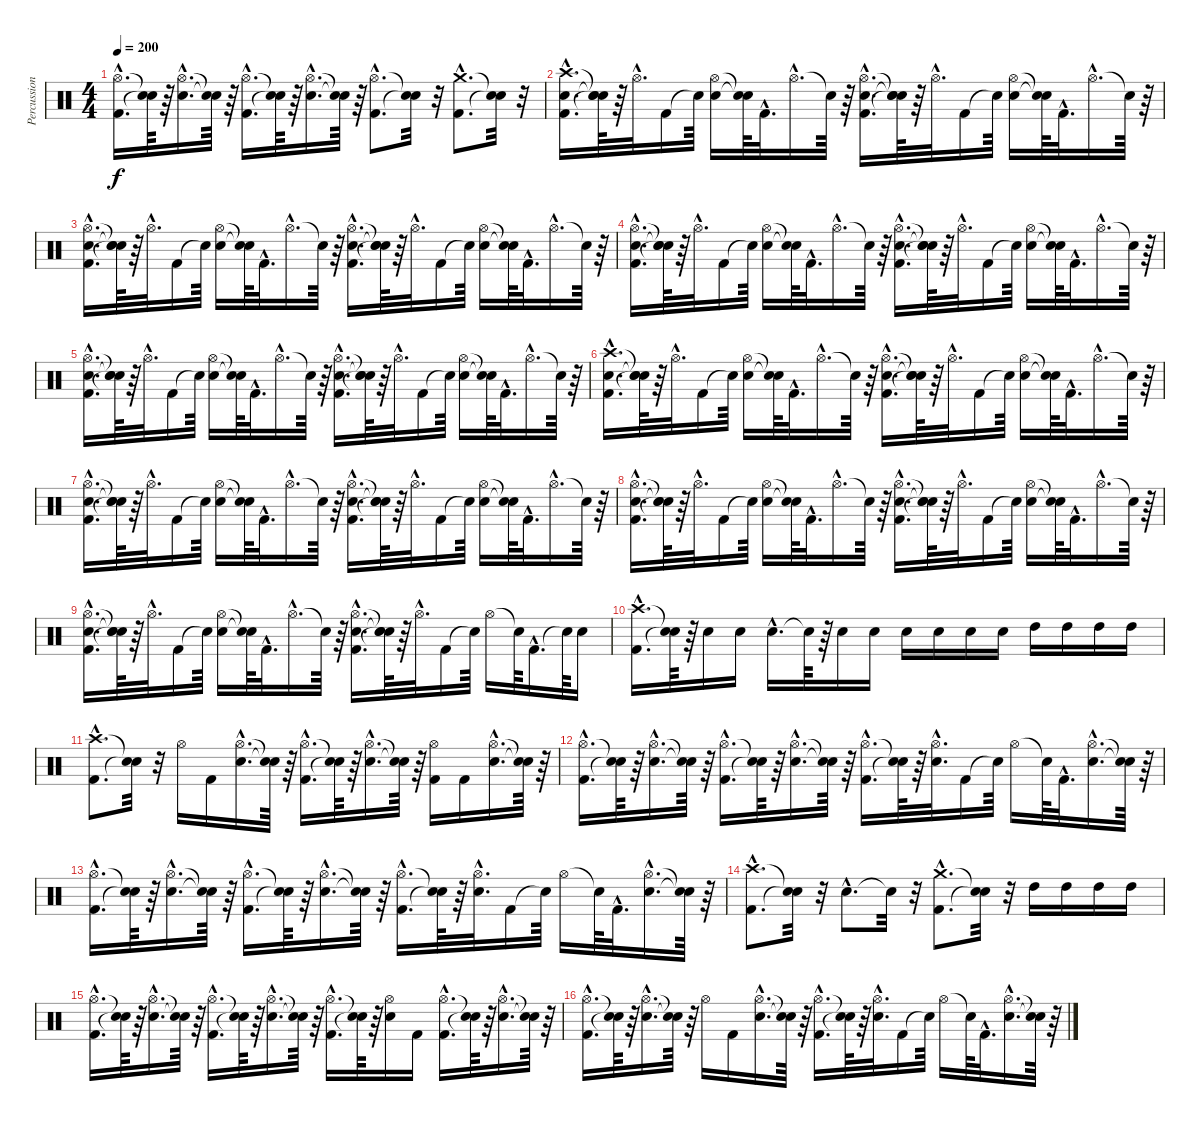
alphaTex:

\track ("Percussion" "Percussion") {instrument percussion}
\staff {score}
\articulation defaults
\ts (4 4)
\tempo 200
\clef neutral
\ks c
("Hi-Hat (open)"{hac} "Kick (hit) 2"{hac}).16{d dy f} ("Snare (hit)"{t} "Snare (hit)"{t}).64 r.64 ("Electric Snare (hit)"{hac} "Hi-Hat (open)"{hac}).16{d} ("Snare (hit)"{t} "Snare (hit)"{t}).64 r.64 ("Hi-Hat (open)"{hac} "Kick (hit) 2"{hac}).16{d} ("Snare (hit)"{t} "Snare (hit)"{t}).64 r.64 ("Electric Snare (hit)"{hac} "Hi-Hat (open)"{hac}).16{d} ("Snare (hit)"{t} "Snare (hit)"{t}).64 r.64 ("Kick (hit) 2"{hac} "Hi-Hat (open)"{hac}).8{d} ("Snare (hit)"{t} "Snare (hit)"{t}).32 r.32 ("Kick (hit) 2"{hac} "Crash medium (hit)"{hac}).8{d} ("Snare (hit)"{t} "Snare (hit)"{t}).32 r.32 |
("Electric Snare (hit)"{hac} "Crash high (hit)"{hac} "Kick (hit) 2"{hac}).16{d} ("Snare (hit)"{t} "Snare (hit)"{t} "Snare (hit)"{t}).64 r.64 "Hi-Hat (open)"{hac}.32{d} "Kick (hit) 2".16 "Snare (hit)"{t}.64 ("Electric Snare (hit)" "Hi-Hat (open)").16 ("Snare (hit)"{t} "Snare (hit)"{t}).64 "Kick (hit) 2"{hac}.32{d} "Hi-Hat (open)"{hac}.16{d} "Snare (hit)"{t}.64 r.64 ("Electric Snare (hit)"{hac} "Hi-Hat (open)"{hac} "Kick (hit) 2"{hac}).16{d} ("Snare (hit)"{t} "Snare (hit)"{t} "Snare (hit)"{t}).64 r.64 "Hi-Hat (open)"{hac}.32{d} "Kick (hit) 2".16 "Snare (hit)"{t}.64 ("Electric Snare (hit)" "Hi-Hat (open)").16 ("Snare (hit)"{t} "Snare (hit)"{t}).64 "Kick (hit) 2"{hac}.32{d} "Hi-Hat (open)"{hac}.16{d} "Snare (hit)"{t}.64 r.64 |
("Electric Snare (hit)"{hac} "Hi-Hat (open)"{hac} "Kick (hit) 2"{hac}).16{d} ("Snare (hit)"{t} "Snare (hit)"{t} "Snare (hit)"{t}).64 r.64 "Hi-Hat (open)"{hac}.32{d} "Kick (hit) 2".16 "Snare (hit)"{t}.64 ("Electric Snare (hit)" "Hi-Hat (open)").16 ("Snare (hit)"{t} "Snare (hit)"{t}).64 "Kick (hit) 2"{hac}.32{d} "Hi-Hat (open)"{hac}.16{d} "Snare (hit)"{t}.64 r.64 ("Electric Snare (hit)"{hac} "Hi-Hat (open)"{hac} "Kick (hit) 2"{hac}).16{d} ("Snare (hit)"{t} "Snare (hit)"{t} "Snare (hit)"{t}).64 r.64 "Hi-Hat (open)"{hac}.32{d} "Kick (hit) 2".16 "Snare (hit)"{t}.64 ("Electric Snare (hit)" "Hi-Hat (open)").16 ("Snare (hit)"{t} "Snare (hit)"{t}).64 "Kick (hit) 2"{hac}.32{d} "Hi-Hat (open)"{hac}.16{d} "Snare (hit)"{t}.64 r.64 |
("Electric Snare (hit)"{hac} "Hi-Hat (open)"{hac} "Kick (hit) 2"{hac}).16{d} ("Snare (hit)"{t} "Snare (hit)"{t} "Snare (hit)"{t}).64 r.64 "Hi-Hat (open)"{hac}.32{d} "Kick (hit) 2".16 "Snare (hit)"{t}.64 ("Electric Snare (hit)" "Hi-Hat (open)").16 ("Snare (hit)"{t} "Snare (hit)"{t}).64 "Kick (hit) 2"{hac}.32{d} "Hi-Hat (open)"{hac}.16{d} "Snare (hit)"{t}.64 r.64 ("Electric Snare (hit)"{hac} "Hi-Hat (open)"{hac} "Kick (hit) 2"{hac}).16{d} ("Snare (hit)"{t} "Snare (hit)"{t} "Snare (hit)"{t}).64 r.64 "Hi-Hat (open)"{hac}.32{d} "Kick (hit) 2".16 "Snare (hit)"{t}.64 ("Electric Snare (hit)" "Hi-Hat (open)").16 ("Snare (hit)"{t} "Snare (hit)"{t}).64 "Kick (hit) 2"{hac}.32{d} "Hi-Hat (open)"{hac}.16{d} "Snare (hit)"{t}.64 r.64 |
("Electric Snare (hit)"{hac} "Hi-Hat (open)"{hac} "Kick (hit) 2"{hac}).16{d} ("Snare (hit)"{t} "Snare (hit)"{t} "Snare (hit)"{t}).64 r.64 "Hi-Hat (open)"{hac}.32{d} "Kick (hit) 2".16 "Snare (hit)"{t}.64 ("Electric Snare (hit)" "Hi-Hat (open)").16 ("Snare (hit)"{t} "Snare (hit)"{t}).64 "Kick (hit) 2"{hac}.32{d} "Hi-Hat (open)"{hac}.16{d} "Snare (hit)"{t}.64 r.64 ("Electric Snare (hit)"{hac} "Hi-Hat (open)"{hac} "Kick (hit) 2"{hac}).16{d} ("Snare (hit)"{t} "Snare (hit)"{t} "Snare (hit)"{t}).64 r.64 "Hi-Hat (open)"{hac}.32{d} "Kick (hit) 2".16 "Snare (hit)"{t}.64 ("Electric Snare (hit)" "Hi-Hat (open)").16 ("Snare (hit)"{t} "Snare (hit)"{t}).64 "Kick (hit) 2"{hac}.32{d} "Hi-Hat (open)"{hac}.16{d} "Snare (hit)"{t}.64 r.64 |
("Electric Snare (hit)"{hac} "Crash high (hit)"{hac} "Kick (hit) 2"{hac}).16{d} ("Snare (hit)"{t} "Snare (hit)"{t} "Snare (hit)"{t}).64 r.64 "Hi-Hat (open)"{hac}.32{d} "Kick (hit) 2".16 "Snare (hit)"{t}.64 ("Electric Snare (hit)" "Hi-Hat (open)").16 ("Snare (hit)"{t} "Snare (hit)"{t}).64 "Kick (hit) 2"{hac}.32{d} "Hi-Hat (open)"{hac}.16{d} "Snare (hit)"{t}.64 r.64 ("Electric Snare (hit)"{hac} "Hi-Hat (open)"{hac} "Kick (hit) 2"{hac}).16{d} ("Snare (hit)"{t} "Snare (hit)"{t} "Snare (hit)"{t}).64 r.64 "Hi-Hat (open)"{hac}.32{d} "Kick (hit) 2".16 "Snare (hit)"{t}.64 ("Electric Snare (hit)" "Hi-Hat (open)").16 ("Snare (hit)"{t} "Snare (hit)"{t}).64 "Kick (hit) 2"{hac}.32{d} "Hi-Hat (open)"{hac}.16{d} "Snare (hit)"{t}.64 r.64 |
("Electric Snare (hit)"{hac} "Hi-Hat (open)"{hac} "Kick (hit) 2"{hac}).16{d} ("Snare (hit)"{t} "Snare (hit)"{t} "Snare (hit)"{t}).64 r.64 "Hi-Hat (open)"{hac}.32{d} "Kick (hit) 2".16 "Snare (hit)"{t}.64 ("Electric Snare (hit)" "Hi-Hat (open)").16 ("Snare (hit)"{t} "Snare (hit)"{t}).64 "Kick (hit) 2"{hac}.32{d} "Hi-Hat (open)"{hac}.16{d} "Snare (hit)"{t}.64 r.64 ("Electric Snare (hit)"{hac} "Hi-Hat (open)"{hac} "Kick (hit) 2"{hac}).16{d} ("Snare (hit)"{t} "Snare (hit)"{t} "Snare (hit)"{t}).64 r.64 "Hi-Hat (open)"{hac}.32{d} "Kick (hit) 2".16 "Snare (hit)"{t}.64 ("Electric Snare (hit)" "Hi-Hat (open)").16 ("Snare (hit)"{t} "Snare (hit)"{t}).64 "Kick (hit) 2"{hac}.32{d} "Hi-Hat (open)"{hac}.16{d} "Snare (hit)"{t}.64 r.64 |
("Electric Snare (hit)"{hac} "Hi-Hat (open)"{hac} "Kick (hit) 2"{hac}).16{d} ("Snare (hit)"{t} "Snare (hit)"{t} "Snare (hit)"{t}).64 r.64 "Hi-Hat (open)"{hac}.32{d} "Kick (hit) 2".16 "Snare (hit)"{t}.64 ("Electric Snare (hit)" "Hi-Hat (open)").16 ("Snare (hit)"{t} "Snare (hit)"{t}).64 "Kick (hit) 2"{hac}.32{d} "Hi-Hat (open)"{hac}.16{d} "Snare (hit)"{t}.64 r.64 ("Electric Snare (hit)"{hac} "Hi-Hat (open)"{hac} "Kick (hit) 2"{hac}).16{d} ("Snare (hit)"{t} "Snare (hit)"{t} "Snare (hit)"{t}).64 r.64 "Hi-Hat (open)"{hac}.32{d} "Kick (hit) 2".16 "Snare (hit)"{t}.64 ("Electric Snare (hit)" "Hi-Hat (open)").16 ("Snare (hit)"{t} "Snare (hit)"{t}).64 "Kick (hit) 2"{hac}.32{d} "Hi-Hat (open)"{hac}.16{d} "Snare (hit)"{t}.64 r.64 |
("Electric Snare (hit)"{hac} "Hi-Hat (open)"{hac} "Kick (hit) 2"{hac}).16{d} ("Snare (hit)"{t} "Snare (hit)"{t} "Snare (hit)"{t}).64 r.64 "Hi-Hat (open)"{hac}.32{d} "Kick (hit) 2".16 "Snare (hit)"{t}.64 ("Electric Snare (hit)" "Hi-Hat (open)").16 ("Snare (hit)"{t} "Snare (hit)"{t}).64 "Kick (hit) 2"{hac}.32{d} "Hi-Hat (open)"{hac}.16{d} "Snare (hit)"{t}.64 r.64 ("Electric Snare (hit)"{hac} "Hi-Hat (open)"{hac} "Kick (hit) 2"{hac}).16{d} ("Snare (hit)"{t} "Snare (hit)"{t} "Snare (hit)"{t}).64 r.64 "Hi-Hat (open)"{hac}.32{d} "Kick (hit) 2".16 "Snare (hit)"{t}.64 "Hi-Hat (open)".16 "Snare (hit)"{t}.64 "Kick (hit) 2"{hac}.16{d} "Snare (hit)"{t}.64 "Electric Snare (hit)".16 |
("Kick (hit) 2"{hac} "Crash high (hit)"{hac}).16{d} ("Snare (hit)"{t} "Snare (hit)"{t}).64 r.64 "Electric Snare (hit)".16 "Electric Snare (hit)".16 "Electric Snare (hit)"{hac}.16{d} "Snare (hit)"{t}.64 r.64 "Electric Snare (hit)".16 "Electric Snare (hit)".16 "Electric Snare (hit)".16 "Electric Snare (hit)".16 "Electric Snare (hit)".16 "Electric Snare (hit)".16 "High Tom (hit)".16 "High Tom (hit)".16 "High Tom (hit)".16 "High Tom (hit)".16 |
("Kick (hit) 2"{hac} "Crash high (hit)"{hac}).8{d} ("Snare (hit)"{t} "Snare (hit)"{t}).32 r.32 "Hi-Hat (open)".16 "Kick (hit) 2".16 ("Electric Snare (hit)"{hac} "Hi-Hat (open)"{hac}).16{d} ("Snare (hit)"{t} "Snare (hit)"{t}).64 r.64 ("Hi-Hat (open)"{hac} "Kick (hit) 2"{hac}).16{d} ("Snare (hit)"{t} "Snare (hit)"{t}).64 r.64 ("Electric Snare (hit)"{hac} "Hi-Hat (open)"{hac}).16{d} ("Snare (hit)"{t} "Snare (hit)"{t}).64 r.64 ("Hi-Hat (open)" "Kick (hit) 2").16 "Kick (hit) 2".16 ("Electric Snare (hit)"{hac} "Hi-Hat (open)"{hac}).16{d} ("Snare (hit)"{t} "Snare (hit)"{t}).64 r.64 |
("Hi-Hat (open)"{hac} "Kick (hit) 2"{hac}).16{d} ("Snare (hit)"{t} "Snare (hit)"{t}).64 r.64 ("Electric Snare (hit)"{hac} "Hi-Hat (open)"{hac}).16{d} ("Snare (hit)"{t} "Snare (hit)"{t}).64 r.64 ("Hi-Hat (open)"{hac} "Kick (hit) 2"{hac}).16{d} ("Snare (hit)"{t} "Snare (hit)"{t}).64 r.64 ("Electric Snare (hit)"{hac} "Hi-Hat (open)"{hac}).16{d} ("Snare (hit)"{t} "Snare (hit)"{t}).64 r.64 ("Hi-Hat (open)"{hac} "Kick (hit) 2"{hac}).16{d} ("Snare (hit)"{t} "Snare (hit)"{t}).64 r.64 ("Electric Snare (hit)"{hac} "Hi-Hat (open)"{hac}).32{d} "Kick (hit) 2".16 "Snare (hit)"{t}.64 "Hi-Hat (open)".16 "Snare (hit)"{t}.64 "Kick (hit) 2"{hac}.32{d} ("Electric Snare (hit)"{hac} "Hi-Hat (open)"{hac}).16{d} ("Snare (hit)"{t} "Snare (hit)"{t}).64 r.64 |
("Hi-Hat (open)"{hac} "Kick (hit) 2"{hac}).16{d} ("Snare (hit)"{t} "Snare (hit)"{t}).64 r.64 ("Electric Snare (hit)"{hac} "Hi-Hat (open)"{hac}).16{d} ("Snare (hit)"{t} "Snare (hit)"{t}).64 r.64 ("Hi-Hat (open)"{hac} "Kick (hit) 2"{hac}).16{d} ("Snare (hit)"{t} "Snare (hit)"{t}).64 r.64 ("Electric Snare (hit)"{hac} "Hi-Hat (open)"{hac}).16{d} ("Snare (hit)"{t} "Snare (hit)"{t}).64 r.64 ("Hi-Hat (open)"{hac} "Kick (hit) 2"{hac}).16{d} ("Snare (hit)"{t} "Snare (hit)"{t}).64 r.64 ("Electric Snare (hit)"{hac} "Hi-Hat (open)"{hac}).32{d} "Kick (hit) 2".16 "Snare (hit)"{t}.64 "Hi-Hat (open)".16 "Snare (hit)"{t}.64 "Kick (hit) 2"{hac}.32{d} ("Electric Snare (hit)"{hac} "Hi-Hat (open)"{hac}).16{d} ("Snare (hit)"{t} "Snare (hit)"{t}).64 r.64 |
("Kick (hit) 2"{hac} "Crash high (hit)"{hac}).8{d} ("Snare (hit)"{t} "Snare (hit)"{t}).32 r.32 "Electric Snare (hit)"{hac}.8{d} "Snare (hit)"{t}.32 r.32 ("Kick (hit) 2"{hac} "Crash medium (hit)"{hac}).8{d} ("Snare (hit)"{t} "Snare (hit)"{t}).32 r.32 "High Tom (hit)".16 "High Tom (hit)".16 "High Tom (hit)".16 "High Tom (hit)".16 |
("Hi-Hat (open)"{hac} "Kick (hit) 2"{hac}).16{d} ("Snare (hit)"{t} "Snare (hit)"{t}).64 r.64 ("Electric Snare (hit)"{hac} "Hi-Hat (open)"{hac}).16{d} ("Snare (hit)"{t} "Snare (hit)"{t}).64 r.64 ("Hi-Hat (open)"{hac} "Kick (hit) 2"{hac}).16{d} ("Snare (hit)"{t} "Snare (hit)"{t}).64 r.64 ("Electric Snare (hit)"{hac} "Hi-Hat (open)"{hac}).16{d} ("Snare (hit)"{t} "Snare (hit)"{t}).64 r.64 ("Hi-Hat (open)"{hac} "Kick (hit) 2"{hac}).16{d} ("Snare (hit)"{t} "Snare (hit)"{t}).64 r.64 ("Electric Snare (hit)" "Hi-Hat (open)").16 "Kick (hit) 2".16 ("Hi-Hat (open)"{hac} "Kick (hit) 2"{hac}).16{d} ("Snare (hit)"{t} "Snare (hit)"{t}).64 r.64 ("Electric Snare (hit)"{hac} "Hi-Hat (open)"{hac}).16{d} ("Snare (hit)"{t} "Snare (hit)"{t}).64 r.64 |
("Hi-Hat (open)"{hac} "Kick (hit) 2"{hac}).16{d} ("Snare (hit)"{t} "Snare (hit)"{t}).64 r.64 ("Electric Snare (hit)"{hac} "Hi-Hat (open)"{hac}).16{d} ("Snare (hit)"{t} "Snare (hit)"{t}).64 r.64 "Hi-Hat (open)".16 "Kick (hit) 2".16 ("Electric Snare (hit)"{hac} "Hi-Hat (open)"{hac}).16{d} ("Snare (hit)"{t} "Snare (hit)"{t}).64 r.64 ("Hi-Hat (open)"{hac} "Kick (hit) 2"{hac}).16{d} ("Snare (hit)"{t} "Snare (hit)"{t}).64 r.64 ("Electric Snare (hit)"{hac} "Hi-Hat (open)"{hac}).32{d} "Kick (hit) 2".16 "Snare (hit)"{t}.64 "Hi-Hat (open)".16 "Snare (hit)"{t}.64 "Kick (hit) 2"{hac}.32{d} ("Electric Snare (hit)"{hac} "Hi-Hat (open)"{hac}).16{d} ("Snare (hit)"{t} "Snare (hit)"{t}).64 r.64
